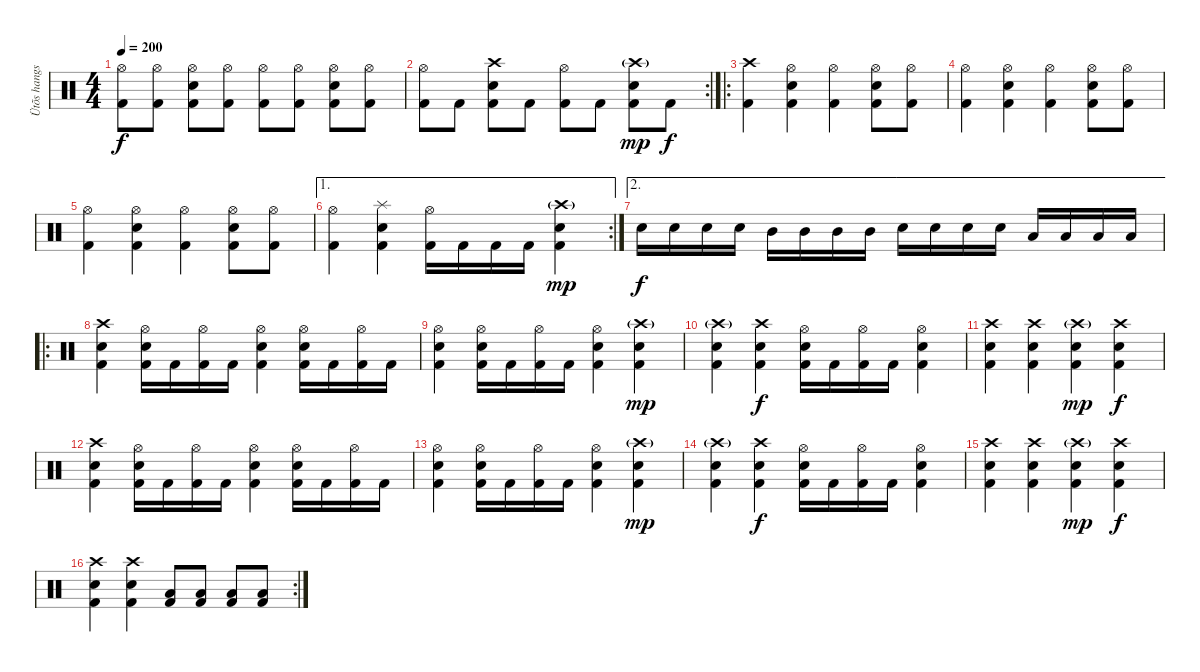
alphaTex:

\track ("Ütõs hangszer" "Ütõs hangs") {instrument percussion}
\staff {score}
\articulation defaults
\ts (4 4)
\tempo 200
\clef neutral
\ks c
("Hi-Hat (open)" "Kick (hit) 2").8{dy f} ("Hi-Hat (open)" "Kick (hit) 2").8 ("Hi-Hat (open)" "Snare (hit) 2" "Kick (hit) 2").8 ("Hi-Hat (open)" "Kick (hit) 2").8 ("Hi-Hat (open)" "Kick (hit) 2").8 ("Hi-Hat (open)" "Kick (hit) 2").8 ("Hi-Hat (open)" "Snare (hit) 2" "Kick (hit) 2").8 ("Hi-Hat (open)" "Kick (hit) 2").8 |
\rc 2
("Hi-Hat (open)" "Kick (hit) 2").8 "Kick (hit) 2".8 ("Crash high (hit)" "Snare (hit) 2" "Kick (hit) 2").8 "Kick (hit) 2".8 ("Hi-Hat (open)" "Kick (hit) 2").8 "Kick (hit) 2".8 ("Crash high (hit)"{g} "Snare (hit) 2" "Kick (hit) 2").8{dy mp} "Kick (hit) 2".8{dy f} |
\ro
("Crash high (hit)" "Kick (hit) 2").4 ("Hi-Hat (open)" "Snare (hit) 2" "Kick (hit) 2").4 ("Hi-Hat (open)" "Kick (hit) 2").4 ("Hi-Hat (open)" "Snare (hit) 2" "Kick (hit) 2").8 ("Hi-Hat (open)" "Kick (hit) 2").8 |
("Hi-Hat (open)" "Kick (hit) 2").4 ("Hi-Hat (open)" "Snare (hit) 2" "Kick (hit) 2").4 ("Hi-Hat (open)" "Kick (hit) 2").4 ("Hi-Hat (open)" "Snare (hit) 2" "Kick (hit) 2").8 ("Hi-Hat (open)" "Kick (hit) 2").8 |
("Hi-Hat (open)" "Kick (hit) 2").4 ("Hi-Hat (open)" "Snare (hit) 2" "Kick (hit) 2").4 ("Hi-Hat (open)" "Kick (hit) 2").4 ("Hi-Hat (open)" "Snare (hit) 2" "Kick (hit) 2").8 ("Hi-Hat (open)" "Kick (hit) 2").8 |
\ae 1
\rc 2
("Hi-Hat (open)" "Kick (hit) 2").4 ("Splash (hit)" "Snare (hit) 2" "Kick (hit) 2").4 ("Hi-Hat (open)" "Kick (hit) 2").16 "Kick (hit) 2".16 "Kick (hit) 2".16 "Kick (hit) 2".16 ("Crash high (hit)"{g} "Snare (hit) 2" "Kick (hit) 2").4{dy mp} |
\ae 2 "Snare (hit) 2".16{dy f} "Snare (hit) 2".16 "Snare (hit) 2".16 "Snare (hit) 2".16 "Mid Tom (hit)".16 "Mid Tom (hit)".16 "Mid Tom (hit)".16 "Mid Tom (hit)".16 "Snare (hit) 2".16 "Snare (hit) 2".16 "Snare (hit) 2".16 "Snare (hit) 2".16 "Low Tom (hit)".16 "Low Tom (hit)".16 "Low Tom (hit)".16 "Low Tom (hit)".16
|
\ro
("Crash high (hit)" "Snare (hit) 2" "Kick (hit) 2").4 ("Hi-Hat (open)" "Snare (hit) 2" "Kick (hit) 2").16 "Kick (hit) 2".16 ("Hi-Hat (open)" "Kick (hit) 2").16 "Kick (hit) 2".16 ("Hi-Hat (open)" "Snare (hit) 2" "Kick (hit) 2").4 ("Hi-Hat (open)" "Snare (hit) 2" "Kick (hit) 2").16 "Kick (hit) 2".16 ("Hi-Hat (open)" "Kick (hit) 2").16 "Kick (hit) 2".16 |
("Hi-Hat (open)" "Snare (hit) 2" "Kick (hit) 2").4 ("Hi-Hat (open)" "Snare (hit) 2" "Kick (hit) 2").16 "Kick (hit) 2".16 ("Hi-Hat (open)" "Kick (hit) 2").16 "Kick (hit) 2".16 ("Hi-Hat (open)" "Snare (hit) 2" "Kick (hit) 2").4 ("Crash high (hit)"{g} "Snare (hit) 2" "Kick (hit) 2").4{dy mp} |
("Crash high (hit)"{g} "Snare (hit) 2" "Kick (hit) 2").4 ("Crash high (hit)" "Snare (hit) 2" "Kick (hit) 2").4{dy f} ("Hi-Hat (open)" "Snare (hit) 2" "Kick (hit) 2").16 "Kick (hit) 2".16 ("Hi-Hat (open)" "Kick (hit) 2").16 "Kick (hit) 2".16 ("Hi-Hat (open)" "Snare (hit) 2" "Kick (hit) 2").4 |
("Crash high (hit)" "Snare (hit) 2" "Kick (hit) 2").4 ("Crash high (hit)" "Snare (hit) 2" "Kick (hit) 2").4 ("Crash high (hit)"{g} "Snare (hit) 2" "Kick (hit) 2").4{dy mp} ("Crash high (hit)" "Snare (hit) 2" "Kick (hit) 2").4{dy f} |
("Crash high (hit)" "Snare (hit) 2" "Kick (hit) 2").4 ("Hi-Hat (open)" "Snare (hit) 2" "Kick (hit) 2").16 "Kick (hit) 2".16 ("Hi-Hat (open)" "Kick (hit) 2").16 "Kick (hit) 2".16 ("Hi-Hat (open)" "Snare (hit) 2" "Kick (hit) 2").4 ("Hi-Hat (open)" "Snare (hit) 2" "Kick (hit) 2").16 "Kick (hit) 2".16 ("Hi-Hat (open)" "Kick (hit) 2").16 "Kick (hit) 2".16 |
("Hi-Hat (open)" "Snare (hit) 2" "Kick (hit) 2").4 ("Hi-Hat (open)" "Snare (hit) 2" "Kick (hit) 2").16 "Kick (hit) 2".16 ("Hi-Hat (open)" "Kick (hit) 2").16 "Kick (hit) 2".16 ("Hi-Hat (open)" "Snare (hit) 2" "Kick (hit) 2").4 ("Crash high (hit)"{g} "Snare (hit) 2" "Kick (hit) 2").4{dy mp} |
("Crash high (hit)"{g} "Snare (hit) 2" "Kick (hit) 2").4 ("Crash high (hit)" "Snare (hit) 2" "Kick (hit) 2").4{dy f} ("Hi-Hat (open)" "Snare (hit) 2" "Kick (hit) 2").16 "Kick (hit) 2".16 ("Hi-Hat (open)" "Kick (hit) 2").16 "Kick (hit) 2".16 ("Hi-Hat (open)" "Snare (hit) 2" "Kick (hit) 2").4 |
("Crash high (hit)" "Snare (hit) 2" "Kick (hit) 2").4 ("Crash high (hit)" "Snare (hit) 2" "Kick (hit) 2").4 ("Crash high (hit)"{g} "Snare (hit) 2" "Kick (hit) 2").4{dy mp} ("Crash high (hit)" "Snare (hit) 2" "Kick (hit) 2").4{dy f} |
\rc 2
("Crash high (hit)" "Snare (hit) 2" "Kick (hit) 2").4 ("Crash high (hit)" "Snare (hit) 2" "Kick (hit) 2").4 ("Low Tom (hit)" "Kick (hit) 2").8 ("Low Tom (hit)" "Kick (hit) 2").8 ("Low Tom (hit)" "Kick (hit) 2").8 ("Low Tom (hit)" "Kick (hit) 2").8
